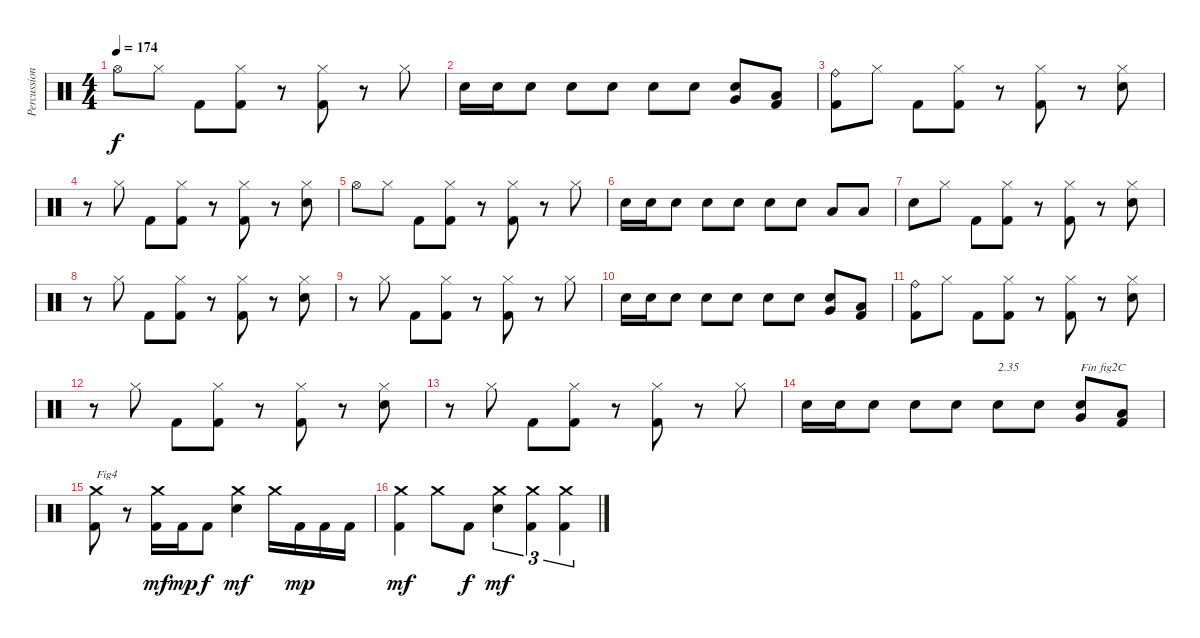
\track ("Percussions" "Percussion") {instrument percussion}
\staff {score}
\articulation defaults
\ts (4 4)
\tempo 174
\clef neutral
\ks c "Hi-Hat (open)".8{dy f} "Hi-Hat (closed)".8 "Kick (hit) 2".8
("Kick (hit) 2" "Hi-Hat (closed)").8 r.8 ("Kick (hit) 2" "Hi-Hat (closed)").8 r.8 "Hi-Hat (closed)".8 |
"Electric Snare (hit)".16 "Electric Snare (hit)".16 "Electric Snare (hit)".8 "Electric Snare (hit)".8 "Electric Snare (hit)".8 "Electric Snare (hit)".8 "Electric Snare (hit)".8 ("Electric Snare (hit)" "Very Low Tom (hit)").8 ("Kick (hit) 2" "Low Floor Tom (hit)").8 |
("Kick (hit) 2" "Ride (bell)").8 "Hi-Hat (closed)".8 "Kick (hit) 2".8 ("Kick (hit) 2" "Hi-Hat (closed)").8 r.8 ("Kick (hit) 2" "Hi-Hat (closed)").8 r.8 ("Electric Snare (hit)" "Hi-Hat (closed)").8 |
r.8 "Hi-Hat (closed)".8 "Kick (hit) 2".8 ("Kick (hit) 2" "Hi-Hat (closed)").8 r.8 ("Kick (hit) 2" "Hi-Hat (closed)").8 r.8 ("Electric Snare (hit)" "Hi-Hat (closed)").8 |
"Hi-Hat (open)".8 "Hi-Hat (closed)".8 "Kick (hit) 2".8 ("Kick (hit) 2" "Hi-Hat (closed)").8 r.8 ("Kick (hit) 2" "Hi-Hat (closed)").8 r.8 "Hi-Hat (closed)".8 |
"Electric Snare (hit)".16 "Electric Snare (hit)".16 "Electric Snare (hit)".8 "Electric Snare (hit)".8 "Electric Snare (hit)".8 "Electric Snare (hit)".8 "Electric Snare (hit)".8 "Low Floor Tom (hit)".8 "Low Floor Tom (hit)".8 |
"Electric Snare (hit)".8 "Hi-Hat (closed)".8 "Kick (hit) 2".8 ("Kick (hit) 2" "Hi-Hat (closed)").8 r.8 ("Kick (hit) 2" "Hi-Hat (closed)").8 r.8 ("Electric Snare (hit)" "Hi-Hat (closed)").8 |
r.8 "Hi-Hat (closed)".8 "Kick (hit) 2".8 ("Kick (hit) 2" "Hi-Hat (closed)").8 r.8 ("Kick (hit) 2" "Hi-Hat (closed)").8 r.8 ("Electric Snare (hit)" "Hi-Hat (closed)").8 |
r.8 "Hi-Hat (closed)".8 "Kick (hit) 2".8 ("Kick (hit) 2" "Hi-Hat (closed)").8 r.8 ("Kick (hit) 2" "Hi-Hat (closed)").8 r.8 "Hi-Hat (closed)".8 |
"Electric Snare (hit)".16 "Electric Snare (hit)".16 "Electric Snare (hit)".8 "Electric Snare (hit)".8 "Electric Snare (hit)".8 "Electric Snare (hit)".8 "Electric Snare (hit)".8 ("Electric Snare (hit)" "Very Low Tom (hit)").8 ("Kick (hit) 2" "Low Floor Tom (hit)").8 |
("Kick (hit) 2" "Ride (bell)").8 "Hi-Hat (closed)".8 "Kick (hit) 2".8 ("Kick (hit) 2" "Hi-Hat (closed)").8 r.8 ("Kick (hit) 2" "Hi-Hat (closed)").8 r.8 ("Electric Snare (hit)" "Hi-Hat (closed)").8 |
r.8 "Hi-Hat (closed)".8 "Kick (hit) 2".8 ("Kick (hit) 2" "Hi-Hat (closed)").8 r.8 ("Kick (hit) 2" "Hi-Hat (closed)").8 r.8 ("Electric Snare (hit)" "Hi-Hat (closed)").8 |
r.8 "Hi-Hat (closed)".8 "Kick (hit) 2".8 ("Kick (hit) 2" "Hi-Hat (closed)").8 r.8 ("Kick (hit) 2" "Hi-Hat (closed)").8 r.8 "Hi-Hat (closed)".8 |
"Electric Snare (hit)".16 "Electric Snare (hit)".16 "Electric Snare (hit)".8 "Electric Snare (hit)".8 "Electric Snare (hit)".8 "Electric Snare (hit)".8{txt "2.35"} "Electric Snare (hit)".8 ("Electric Snare (hit)" "Very Low Tom (hit)").8{txt "Fin fig2C"} ("Kick (hit) 2" "Low Floor Tom (hit)").8 |
("Kick (hit) 2" "Crash medium (hit)").8{txt "Fig4"} r.8 ("Kick (hit) 2" "Crash medium (hit)").16{dy mf} "Kick (hit) 2".16{dy mp} "Kick (hit) 2".8{dy f} ("Electric Snare (hit)" "Crash medium (hit)").4{dy mf} "Crash medium (hit)".16 "Kick (hit) 2".16{dy mp} "Kick (hit) 2".16 "Kick (hit) 2".16 |
("Kick (hit) 2" "Crash medium (hit)").4{dy mf} "Crash medium (hit)".8 "Kick (hit) 2".8{dy f} ("Electric Snare (hit)" "Crash medium (hit)").4{tu (3 2) dy mf} ("Kick (hit) 2" "Crash medium (hit)").4{tu (3 2)} ("Kick (hit) 2" "Crash medium (hit)").4{tu (3 2)}
